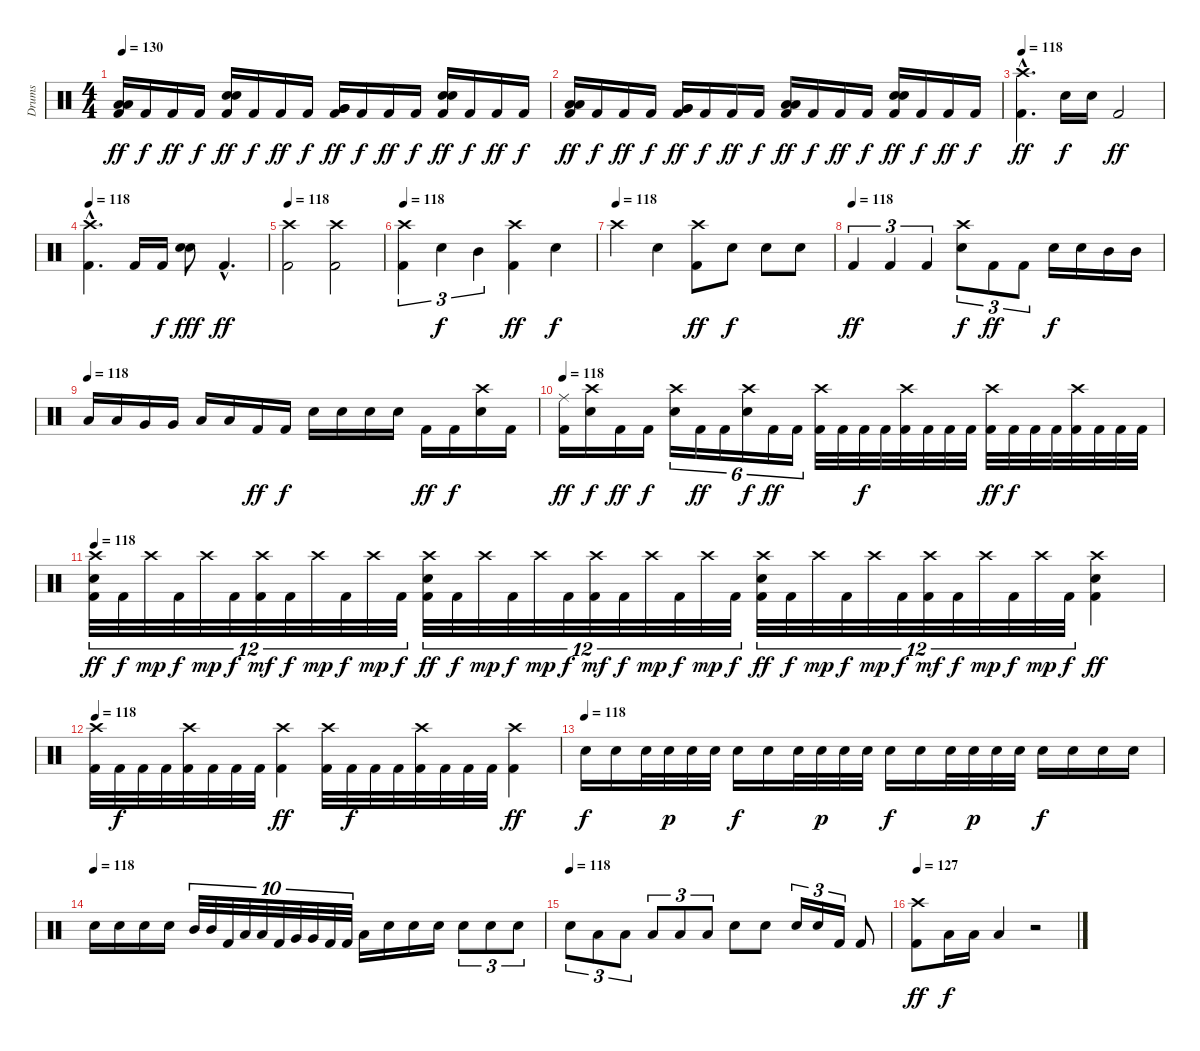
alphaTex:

\track ("Drums" "Drums") {instrument percussion}
\staff {score}
\articulation defaults
\ts (4 4)
\tempo 130
\clef neutral
\ks c
("Low Tom (hit)" "Kick (hit) 2" "Low Tom (hit)").16{dy ff} "Kick (hit) 2".16{dy f} "Kick (hit) 2".16{dy ff} "Kick (hit) 2".16{dy f} ("Electric Snare (hit)" "Kick (hit) 2" "Electric Snare (hit)").16{dy ff} "Kick (hit) 2".16{dy f} "Kick (hit) 2".16{dy ff} "Kick (hit) 2".16{dy f} ("Very Low Tom (hit)" "Kick (hit) 2" "Very Low Tom (hit)").16{dy ff} "Kick (hit) 2".16{dy f} "Kick (hit) 2".16{dy ff} "Kick (hit) 2".16{dy f} ("Electric Snare (hit)" "Kick (hit) 2" "Electric Snare (hit)").16{dy ff} "Kick (hit) 2".16{dy f} "Kick (hit) 2".16{dy ff} "Kick (hit) 2".16{dy f} |
("Low Tom (hit)" "Kick (hit) 2" "Low Tom (hit)").16{dy ff} "Kick (hit) 2".16{dy f} "Kick (hit) 2".16{dy ff} "Kick (hit) 2".16{dy f} ("Very Low Tom (hit)" "Kick (hit) 2" "Very Low Tom (hit)").16{dy ff} "Kick (hit) 2".16{dy f} "Kick (hit) 2".16{dy ff} "Kick (hit) 2".16{dy f} ("Low Floor Tom (hit)" "Kick (hit) 2" "Low Floor Tom (hit)").16{dy ff} "Kick (hit) 2".16{dy f} "Kick (hit) 2".16{dy ff} "Kick (hit) 2".16{dy f} ("Electric Snare (hit)" "Kick (hit) 2" "Electric Snare (hit)").16{dy ff} "Kick (hit) 2".16{dy f} "Kick (hit) 2".16{dy ff} "Kick (hit) 2".16{dy f} |
\tempo 118
("Crash high (hit)"{hac} "Kick (hit) 2"{hac}).4{d dy ff} "Electric Snare (hit)".16{dy f} "Electric Snare (hit)".16 "Kick (hit) 2".2{dy ff} |
\tempo 118
("Crash high (hit)"{hac} "Kick (hit) 2"{hac}).4{d} "Kick (hit) 2".16 "Kick (hit) 2".16{dy f} ("Electric Snare (hit)" "Electric Snare (hit)").8{dy fff} "Kick (hit) 2"{hac}.4{d dy ff} |
\tempo 118
("Crash high (hit)" "Kick (hit) 2").2 ("Crash high (hit)" "Kick (hit) 2").2 |
\tempo 118
("Crash high (hit)" "Kick (hit) 2").4{tu (3 2)} "Electric Snare (hit)".4{tu (3 2) dy f} "Mid Tom (hit)".4{tu (3 2)} ("Crash high (hit)" "Kick (hit) 2").4{dy ff} "Electric Snare (hit)".4{dy f} |
\tempo (118)
"Crash high (hit)".4 "Electric Snare (hit)".4 ("Crash high (hit)" "Kick (hit) 2").8{dy ff} "Electric Snare (hit)".8{dy f} "Electric Snare (hit)".8 "Electric Snare (hit)".8 |
\tempo (118)
"Kick (hit) 2".4{tu (3 2) dy ff} "Kick (hit) 2".4{tu (3 2)} "Kick (hit) 2".4{tu (3 2)} ("Crash high (hit)" "Electric Snare (hit)").8{tu (3 2) dy f} "Kick (hit) 2".8{tu (3 2) dy ff} "Kick (hit) 2".8{tu (3 2)} "Electric Snare (hit)".16{dy f} "Electric Snare (hit)".16 "Mid Tom (hit)".16 "Mid Tom (hit)".16 |
\tempo (118)
"Low Tom (hit)".16 "Low Tom (hit)".16 "Very Low Tom (hit)".16 "Very Low Tom (hit)".16 "Low Floor Tom (hit)".16 "Low Floor Tom (hit)".16 "Kick (hit) 2".16{dy ff} "Kick (hit) 2".16{dy f} "Electric Snare (hit)".16 "Electric Snare (hit)".16 "Electric Snare (hit)".16 "Electric Snare (hit)".16 "Kick (hit) 2".16{dy ff} "Kick (hit) 2".16{dy f} ("Crash high (hit)" "Electric Snare (hit)").16 "Kick (hit) 2".16 |
\tempo 118
("Ride (middle)" "Kick (hit) 2").16{dy ff} ("Crash high (hit)" "Electric Snare (hit)").16{dy f} "Kick (hit) 2".16{dy ff} "Kick (hit) 2".16{dy f} ("Crash high (hit)" "Electric Snare (hit)").16{tu (6 4)} "Kick (hit) 2".16{tu (6 4) dy ff} "Kick (hit) 2".16{tu (6 4)} ("Crash high (hit)" "Electric Snare (hit)").16{tu (6 4) dy f} "Kick (hit) 2".16{tu (6 4) dy ff} "Kick (hit) 2".16{tu (6 4)} ("Crash high (hit)" "Kick (hit) 2").32 "Kick (hit) 2".32 "Kick (hit) 2".32{dy f} "Kick (hit) 2".32 ("Crash high (hit)" "Kick (hit) 2").32 "Kick (hit) 2".32 "Kick (hit) 2".32 "Kick (hit) 2".32 ("Crash high (hit)" "Kick (hit) 2").32{dy ff} "Kick (hit) 2".32{dy f} "Kick (hit) 2".32 "Kick (hit) 2".32 ("Crash high (hit)" "Kick (hit) 2").32 "Kick (hit) 2".32 "Kick (hit) 2".32 "Kick (hit) 2".32 |
\tempo 118
("Crash high (hit)" "Electric Snare (hit)" "Kick (hit) 2").32{tu (12 8) dy ff} "Kick (hit) 2".32{tu (12 8) dy f} "Crash high (hit)".32{tu (12 8) dy mp} "Kick (hit) 2".32{tu (12 8) dy f} "Crash high (hit)".32{tu (12 8) dy mp} "Kick (hit) 2".32{tu (12 8) dy f} ("Crash high (hit)" "Kick (hit) 2").32{tu (12 8) dy mf} "Kick (hit) 2".32{tu (12 8) dy f} "Crash high (hit)".32{tu (12 8) dy mp} "Kick (hit) 2".32{tu (12 8) dy f} "Crash high (hit)".32{tu (12 8) dy mp} "Kick (hit) 2".32{tu (12 8) dy f} ("Crash high (hit)" "Electric Snare (hit)" "Kick (hit) 2").32{tu (12 8) dy ff} "Kick (hit) 2".32{tu (12 8) dy f} "Crash high (hit)".32{tu (12 8) dy mp} "Kick (hit) 2".32{tu (12 8) dy f} "Crash high (hit)".32{tu (12 8) dy mp} "Kick (hit) 2".32{tu (12 8) dy f} ("Crash high (hit)" "Kick (hit) 2").32{tu (12 8) dy mf} "Kick (hit) 2".32{tu (12 8) dy f} "Crash high (hit)".32{tu (12 8) dy mp} "Kick (hit) 2".32{tu (12 8) dy f} "Crash high (hit)".32{tu (12 8) dy mp} "Kick (hit) 2".32{tu (12 8) dy f} ("Crash high (hit)" "Electric Snare (hit)" "Kick (hit) 2").32{tu (12 8) dy ff} "Kick (hit) 2".32{tu (12 8) dy f} "Crash high (hit)".32{tu (12 8) dy mp} "Kick (hit) 2".32{tu (12 8) dy f} "Crash high (hit)".32{tu (12 8) dy mp} "Kick (hit) 2".32{tu (12 8) dy f} ("Crash high (hit)" "Kick (hit) 2").32{tu (12 8) dy mf} "Kick (hit) 2".32{tu (12 8) dy f} "Crash high (hit)".32{tu (12 8) dy mp} "Kick (hit) 2".32{tu (12 8) dy f} "Crash high (hit)".32{tu (12 8) dy mp} "Kick (hit) 2".32{tu (12 8) dy f} ("Crash high (hit)" "Electric Snare (hit)" "Kick (hit) 2").4{dy ff} |
\tempo 118
("Crash high (hit)" "Kick (hit) 2").32 "Kick (hit) 2".32{dy f} "Kick (hit) 2".32 "Kick (hit) 2".32 ("Crash high (hit)" "Kick (hit) 2").32 "Kick (hit) 2".32 "Kick (hit) 2".32 "Kick (hit) 2".32 ("Crash high (hit)" "Kick (hit) 2").4{dy ff} ("Crash high (hit)" "Kick (hit) 2").32 "Kick (hit) 2".32{dy f} "Kick (hit) 2".32 "Kick (hit) 2".32 ("Crash high (hit)" "Kick (hit) 2").32 "Kick (hit) 2".32 "Kick (hit) 2".32 "Kick (hit) 2".32 ("Crash high (hit)" "Kick (hit) 2").4{dy ff} |
\tempo (118)
"Electric Snare (hit)".16{dy f} "Electric Snare (hit)".16 "Electric Snare (hit)".32 "Electric Snare (hit)".32{dy p} "Electric Snare (hit)".32 "Electric Snare (hit)".32 "Electric Snare (hit)".16{dy f} "Electric Snare (hit)".16 "Electric Snare (hit)".32 "Electric Snare (hit)".32{dy p} "Electric Snare (hit)".32 "Electric Snare (hit)".32 "Electric Snare (hit)".16{dy f} "Electric Snare (hit)".16 "Electric Snare (hit)".32 "Electric Snare (hit)".32{dy p} "Electric Snare (hit)".32 "Electric Snare (hit)".32 "Electric Snare (hit)".16{dy f} "Electric Snare (hit)".16 "Electric Snare (hit)".16 "Electric Snare (hit)".16 |
\tempo (118)
"Electric Snare (hit)".16 "Electric Snare (hit)".16 "Electric Snare (hit)".16 "Electric Snare (hit)".16 "Mid Tom (hit)".32{tu (10 8)} "Mid Tom (hit)".32{tu (10 8)} "Kick (hit) 2".32{tu (10 8)} "Low Tom (hit)".32{tu (10 8)} "Low Tom (hit)".32{tu (10 8)} "Kick (hit) 2".32{tu (10 8)} "Very Low Tom (hit)".32{tu (10 8)} "Very Low Tom (hit)".32{tu (10 8)} "Kick (hit) 2".32{tu (10 8)} "Kick (hit) 2".32{tu (10 8)} "Low Floor Tom (hit)".16 "Electric Snare (hit)".16 "Electric Snare (hit)".16 "Electric Snare (hit)".16 "Electric Snare (hit)".8{tu (3 2)} "Electric Snare (hit)".8{tu (3 2)} "Electric Snare (hit)".8{tu (3 2)} |
\tempo (118)
"Electric Snare (hit)".8{tu (3 2)} "Low Floor Tom (hit)".8{tu (3 2)} "Low Floor Tom (hit)".8{tu (3 2)} "Low Floor Tom (hit)".8{tu (3 2)} "Low Floor Tom (hit)".8{tu (3 2)} "Low Floor Tom (hit)".8{tu (3 2)} "Electric Snare (hit)".8 "Electric Snare (hit)".8 "Electric Snare (hit)".16{tu (3 2)} "Electric Snare (hit)".16{tu (3 2)} "Kick (hit) 2".16{tu (3 2)} "Kick (hit) 2".8 |
\tempo 127
("Crash high (hit)" "Kick (hit) 2").8{dy ff} "Low Floor Tom (hit)".16{dy f} "Low Floor Tom (hit)".16 "Low Floor Tom (hit)".4 r.2
